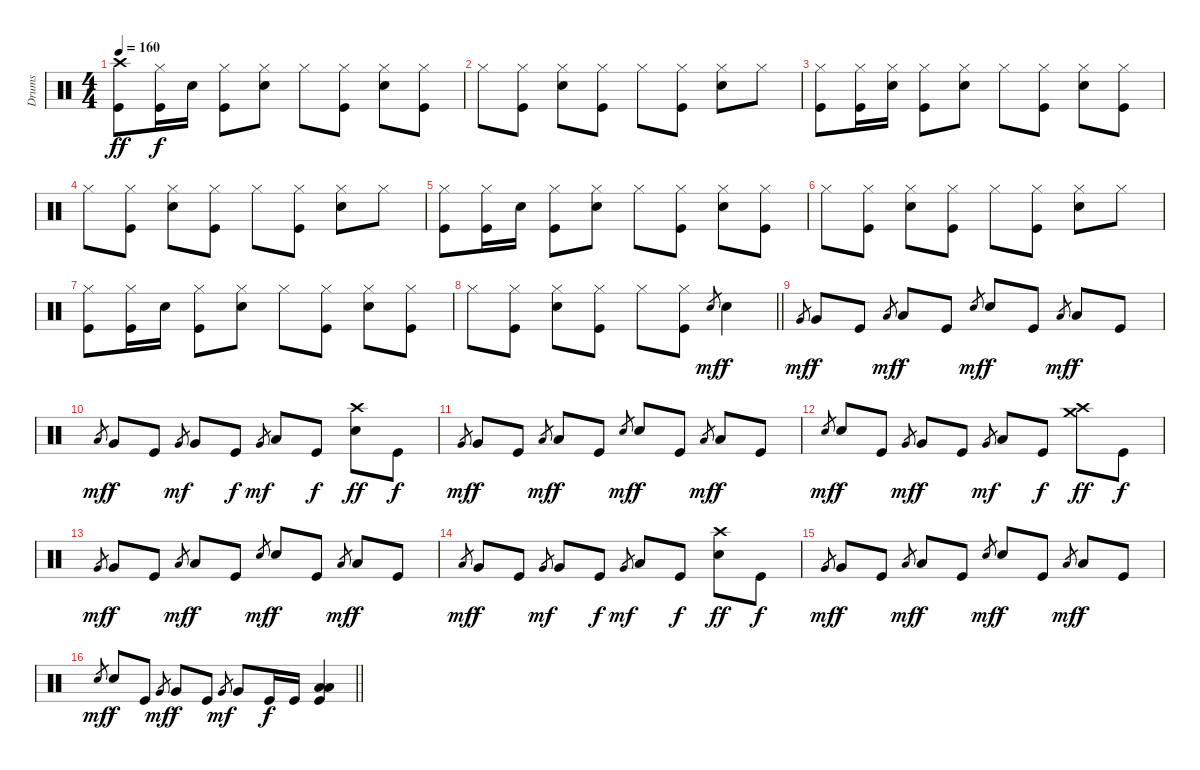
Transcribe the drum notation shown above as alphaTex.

\track ("Drums" "Drums") {instrument percussion}
\staff {score}
\articulation defaults
\ts (4 4)
\tempo 160
\clef neutral
\ks c
("Crash high (hit)" "Kick (hit)").8{dy ff} ("Hi-Hat (closed)" "Kick (hit)").16{dy f} "Snare (hit) 2".16 ("Hi-Hat (closed)" "Kick (hit)").8 ("Hi-Hat (closed)" "Snare (hit) 2").8 "Hi-Hat (closed)".8 ("Hi-Hat (closed)" "Kick (hit)").8 ("Hi-Hat (closed)" "Snare (hit) 2").8 ("Hi-Hat (closed)" "Kick (hit)").8 |
"Hi-Hat (closed)".8 ("Hi-Hat (closed)" "Kick (hit)").8 ("Hi-Hat (closed)" "Snare (hit) 2").8 ("Hi-Hat (closed)" "Kick (hit)").8 "Hi-Hat (closed)".8 ("Hi-Hat (closed)" "Kick (hit)").8 ("Hi-Hat (closed)" "Snare (hit) 2").8 "Hi-Hat (closed)".8 |
("Hi-Hat (closed)" "Kick (hit)").8 ("Hi-Hat (closed)" "Kick (hit)").16 ("Hi-Hat (closed)" "Snare (hit) 2").16 ("Hi-Hat (closed)" "Kick (hit)").8 ("Hi-Hat (closed)" "Snare (hit) 2").8 "Hi-Hat (closed)".8 ("Hi-Hat (closed)" "Kick (hit)").8 ("Hi-Hat (closed)" "Snare (hit) 2").8 ("Hi-Hat (closed)" "Kick (hit)").8 |
"Hi-Hat (closed)".8 ("Hi-Hat (closed)" "Kick (hit)").8 ("Hi-Hat (closed)" "Snare (hit) 2").8 ("Hi-Hat (closed)" "Kick (hit)").8 "Hi-Hat (closed)".8 ("Hi-Hat (closed)" "Kick (hit)").8 ("Hi-Hat (closed)" "Snare (hit) 2").8 "Hi-Hat (closed)".8 |
("Hi-Hat (closed)" "Kick (hit)").8 ("Hi-Hat (closed)" "Kick (hit)").16 "Snare (hit) 2".16 ("Hi-Hat (closed)" "Kick (hit)").8 ("Hi-Hat (closed)" "Snare (hit) 2").8 "Hi-Hat (closed)".8 ("Hi-Hat (closed)" "Kick (hit)").8 ("Hi-Hat (closed)" "Snare (hit) 2").8 ("Hi-Hat (closed)" "Kick (hit)").8 |
"Hi-Hat (closed)".8 ("Hi-Hat (closed)" "Kick (hit)").8 ("Hi-Hat (closed)" "Snare (hit) 2").8 ("Hi-Hat (closed)" "Kick (hit)").8 "Hi-Hat (closed)".8 ("Hi-Hat (closed)" "Kick (hit)").8 ("Hi-Hat (closed)" "Snare (hit) 2").8 "Hi-Hat (closed)".8 |
("Hi-Hat (closed)" "Kick (hit)").8 ("Hi-Hat (closed)" "Kick (hit)").16 "Snare (hit) 2".16 ("Hi-Hat (closed)" "Kick (hit)").8 ("Hi-Hat (closed)" "Snare (hit) 2").8 "Hi-Hat (closed)".8 ("Hi-Hat (closed)" "Kick (hit)").8 ("Hi-Hat (closed)" "Snare (hit) 2").8 ("Hi-Hat (closed)" "Kick (hit)").8 |
\barLineRight lightlight "Hi-Hat (closed)".8
("Hi-Hat (closed)" "Kick (hit)").8 ("Hi-Hat (closed)" "Snare (hit) 2").8 ("Hi-Hat (closed)" "Kick (hit)").8 "Hi-Hat (closed)".8 ("Hi-Hat (closed)" "Kick (hit)").8 "Snare (hit) 2".8{gr dy mf} "Snare (hit) 2".4{dy f} |
"Very Low Tom (hit)".8{gr dy mf} "Very Low Tom (hit)".8{dy f} "Kick (hit)".8 "Low Floor Tom (hit)".8{gr dy mf} "Low Floor Tom (hit)".8{dy f} "Kick (hit)".8 "Snare (hit) 2".8{gr dy mf} "Snare (hit) 2".8{dy f} "Kick (hit)".8 "Low Tom (hit)".8{gr dy mf} "Low Tom (hit)".8{dy f} "Kick (hit)".8 |
"Low Tom (hit)".8{gr dy mf} "Very Low Tom (hit)".8{dy f} "Kick (hit)".8 "Very Low Tom (hit)".8{gr dy mf} "Very Low Tom (hit)".8 "Kick (hit)".8{dy f} "Very Low Tom (hit)".8{gr dy mf} "Low Floor Tom (hit)".8 "Kick (hit)".8{dy f} ("Crash high (hit)" "Snare (hit) 2").8{dy ff} "Kick (hit)".8{dy f} |
"Very Low Tom (hit)".8{gr dy mf} "Very Low Tom (hit)".8{dy f} "Kick (hit)".8 "Low Floor Tom (hit)".8{gr dy mf} "Low Floor Tom (hit)".8{dy f} "Kick (hit)".8 "Snare (hit) 2".8{gr dy mf} "Snare (hit) 2".8{dy f} "Kick (hit)".8 "Low Tom (hit)".8{gr dy mf} "Low Tom (hit)".8{dy f} "Kick (hit)".8 |
"Snare (hit) 2".8{gr dy mf} "Snare (hit) 2".8{dy f} "Kick (hit)".8 "Very Low Tom (hit)".8{gr dy mf} "Very Low Tom (hit)".8{dy f} "Kick (hit)".8 "Very Low Tom (hit)".8{gr dy mf} "Low Floor Tom (hit)".8 "Kick (hit)".8{dy f} ("Crash high (hit)" "Crash medium (hit)").8{dy ff} "Kick (hit)".8{dy f} |
"Very Low Tom (hit)".8{gr dy mf} "Very Low Tom (hit)".8{dy f} "Kick (hit)".8 "Low Floor Tom (hit)".8{gr dy mf} "Low Floor Tom (hit)".8{dy f} "Kick (hit)".8 "Snare (hit) 2".8{gr dy mf} "Snare (hit) 2".8{dy f} "Kick (hit)".8 "Low Tom (hit)".8{gr dy mf} "Low Tom (hit)".8{dy f} "Kick (hit)".8 |
"Low Tom (hit)".8{gr dy mf} "Very Low Tom (hit)".8{dy f} "Kick (hit)".8 "Very Low Tom (hit)".8{gr dy mf} "Very Low Tom (hit)".8 "Kick (hit)".8{dy f} "Very Low Tom (hit)".8{gr dy mf} "Low Floor Tom (hit)".8 "Kick (hit)".8{dy f} ("Crash high (hit)" "Snare (hit) 2").8{dy ff} "Kick (hit)".8{dy f} |
"Very Low Tom (hit)".8{gr dy mf} "Very Low Tom (hit)".8{dy f} "Kick (hit)".8 "Low Floor Tom (hit)".8{gr dy mf} "Low Floor Tom (hit)".8{dy f} "Kick (hit)".8 "Snare (hit) 2".8{gr dy mf} "Snare (hit) 2".8{dy f} "Kick (hit)".8 "Low Tom (hit)".8{gr dy mf} "Low Tom (hit)".8{dy f} "Kick (hit)".8 |
\barLineRight lightlight "Snare (hit) 2".8{gr dy mf} "Snare (hit) 2".8{dy f} "Kick (hit)".8 "Very Low Tom (hit)".8{gr dy mf} "Very Low Tom (hit)".8{dy f} "Kick (hit)".8 "Very Low Tom (hit)".8{gr dy mf} "Very Low Tom (hit)".8 "Kick (hit)".16{dy f} "Kick (hit)".16
("Low Floor Tom (hit)" "Low Floor Tom (hit)" "Kick (hit)").4
